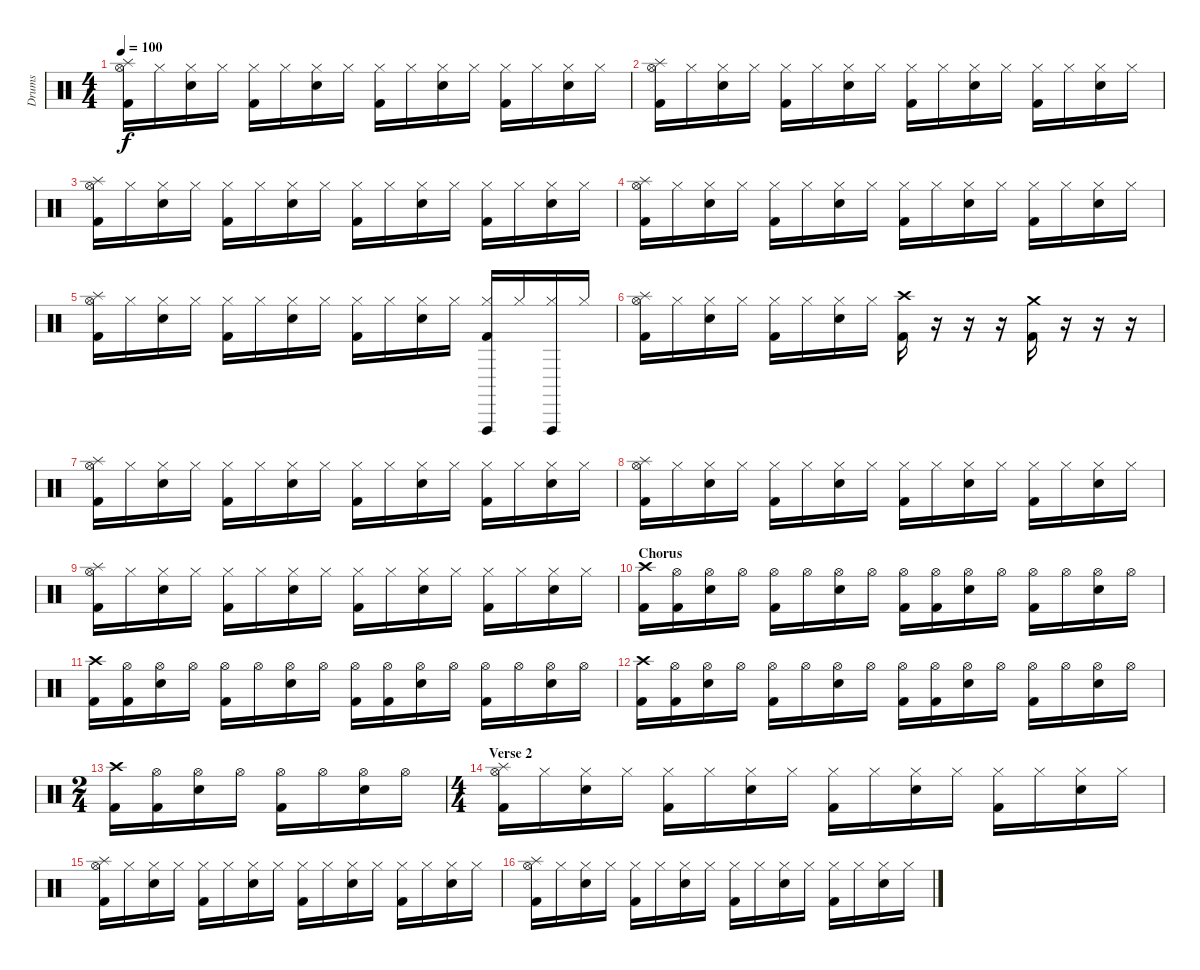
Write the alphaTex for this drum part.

\track ("Drums" "Drums") {instrument percussion}
\staff {score}
\articulation defaults
\ts (4 4)
\tempo 100
\clef neutral
\ks c
("Hi-Hat (open)" "Splash (hit)" "Kick (hit) 2").16{dy f} "Hi-Hat (closed)".16 ("Hi-Hat (closed)" "Snare (hit) 2").16 "Hi-Hat (closed)".16 ("Hi-Hat (closed)" "Kick (hit) 2").16 "Hi-Hat (closed)".16 ("Hi-Hat (closed)" "Snare (hit) 2").16 "Hi-Hat (closed)".16 ("Hi-Hat (closed)" "Kick (hit) 2").16 "Hi-Hat (closed)".16 ("Hi-Hat (closed)" "Snare (hit) 2").16 "Hi-Hat (closed)".16 ("Hi-Hat (closed)" "Kick (hit) 2").16 "Hi-Hat (closed)".16 ("Hi-Hat (closed)" "Snare (hit) 2").16 "Hi-Hat (closed)".16 |
("Hi-Hat (open)" "Splash (hit)" "Kick (hit) 2").16 "Hi-Hat (closed)".16 ("Hi-Hat (closed)" "Snare (hit) 2").16 "Hi-Hat (closed)".16 ("Hi-Hat (closed)" "Kick (hit) 2").16 "Hi-Hat (closed)".16 ("Hi-Hat (closed)" "Snare (hit) 2").16 "Hi-Hat (closed)".16 ("Hi-Hat (closed)" "Kick (hit) 2").16 "Hi-Hat (closed)".16 ("Hi-Hat (closed)" "Snare (hit) 2").16 "Hi-Hat (closed)".16 ("Hi-Hat (closed)" "Kick (hit) 2").16 "Hi-Hat (closed)".16 ("Hi-Hat (closed)" "Snare (hit) 2").16 "Hi-Hat (closed)".16 |
("Hi-Hat (open)" "Splash (hit)" "Kick (hit) 2").16 "Hi-Hat (closed)".16 ("Hi-Hat (closed)" "Snare (hit) 2").16 "Hi-Hat (closed)".16 ("Hi-Hat (closed)" "Kick (hit) 2").16 "Hi-Hat (closed)".16 ("Hi-Hat (closed)" "Snare (hit) 2").16 "Hi-Hat (closed)".16 ("Hi-Hat (closed)" "Kick (hit) 2").16 "Hi-Hat (closed)".16 ("Hi-Hat (closed)" "Snare (hit) 2").16 "Hi-Hat (closed)".16 ("Hi-Hat (closed)" "Kick (hit) 2").16 "Hi-Hat (closed)".16 ("Hi-Hat (closed)" "Snare (hit) 2").16 "Hi-Hat (closed)".16 |
("Hi-Hat (open)" "Splash (hit)" "Kick (hit) 2").16 "Hi-Hat (closed)".16 ("Hi-Hat (closed)" "Snare (hit) 2").16 "Hi-Hat (closed)".16 ("Hi-Hat (closed)" "Kick (hit) 2").16 "Hi-Hat (closed)".16 ("Hi-Hat (closed)" "Snare (hit) 2").16 "Hi-Hat (closed)".16 ("Hi-Hat (closed)" "Kick (hit) 2").16 "Hi-Hat (closed)".16 ("Hi-Hat (closed)" "Snare (hit) 2").16 "Hi-Hat (closed)".16 ("Hi-Hat (closed)" "Kick (hit) 2").16 "Hi-Hat (closed)".16 ("Hi-Hat (closed)" "Snare (hit) 2").16 "Hi-Hat (closed)".16 |
("Hi-Hat (open)" "Splash (hit)" "Kick (hit) 2").16 "Hi-Hat (closed)".16 ("Hi-Hat (closed)" "Snare (hit) 2").16 "Hi-Hat (closed)".16 ("Hi-Hat (closed)" "Kick (hit) 2").16 "Hi-Hat (closed)".16 ("Hi-Hat (closed)" "Snare (hit) 2").16 "Hi-Hat (closed)".16 ("Hi-Hat (closed)" "Kick (hit) 2").16 "Hi-Hat (closed)".16 ("Hi-Hat (closed)" "Snare (hit) 2").16 "Hi-Hat (closed)".16 ("Hi-Hat (closed)" "Vibraslap (hit)" "Kick (hit) 2").16 "Hi-Hat (closed)".16 ("Hi-Hat (closed)" "Vibraslap (hit)").16 "Hi-Hat (closed)".16 |
("Hi-Hat (open)" "Splash (hit)" "Kick (hit) 2").16 "Hi-Hat (closed)".16 ("Hi-Hat (closed)" "Snare (hit) 2").16 "Hi-Hat (closed)".16 ("Hi-Hat (closed)" "Kick (hit) 2").16 "Hi-Hat (closed)".16 ("Hi-Hat (closed)" "Snare (hit) 2").16 "Hi-Hat (closed)".16 ("Crash high (hit)" "Kick (hit) 2").16 r.16 r.16 r.16 ("Crash medium (hit)" "Kick (hit) 2").16 r.16 r.16 r.16 |
("Hi-Hat (open)" "Splash (hit)" "Kick (hit) 2").16 "Hi-Hat (closed)".16 ("Hi-Hat (closed)" "Snare (hit) 2").16 "Hi-Hat (closed)".16 ("Hi-Hat (closed)" "Kick (hit) 2").16 "Hi-Hat (closed)".16 ("Hi-Hat (closed)" "Snare (hit) 2").16 "Hi-Hat (closed)".16 ("Hi-Hat (closed)" "Kick (hit) 2").16 "Hi-Hat (closed)".16 ("Hi-Hat (closed)" "Snare (hit) 2").16 "Hi-Hat (closed)".16 ("Hi-Hat (closed)" "Kick (hit) 2").16 "Hi-Hat (closed)".16 ("Hi-Hat (closed)" "Snare (hit) 2").16 "Hi-Hat (closed)".16 |
("Hi-Hat (open)" "Splash (hit)" "Kick (hit) 2").16 "Hi-Hat (closed)".16 ("Hi-Hat (closed)" "Snare (hit) 2").16 "Hi-Hat (closed)".16 ("Hi-Hat (closed)" "Kick (hit) 2").16 "Hi-Hat (closed)".16 ("Hi-Hat (closed)" "Snare (hit) 2").16 "Hi-Hat (closed)".16 ("Hi-Hat (closed)" "Kick (hit) 2").16 "Hi-Hat (closed)".16 ("Hi-Hat (closed)" "Snare (hit) 2").16 "Hi-Hat (closed)".16 ("Hi-Hat (closed)" "Kick (hit) 2").16 "Hi-Hat (closed)".16 ("Hi-Hat (closed)" "Snare (hit) 2").16 "Hi-Hat (closed)".16 |
("Hi-Hat (open)" "Splash (hit)" "Kick (hit) 2").16 "Hi-Hat (closed)".16 ("Hi-Hat (closed)" "Snare (hit) 2").16 "Hi-Hat (closed)".16 ("Hi-Hat (closed)" "Kick (hit) 2").16 "Hi-Hat (closed)".16 ("Hi-Hat (closed)" "Snare (hit) 2").16 "Hi-Hat (closed)".16 ("Hi-Hat (closed)" "Kick (hit) 2").16 "Hi-Hat (closed)".16 ("Hi-Hat (closed)" "Snare (hit) 2").16 "Hi-Hat (closed)".16 ("Hi-Hat (closed)" "Kick (hit) 2").16 "Hi-Hat (closed)".16 ("Hi-Hat (closed)" "Snare (hit) 2").16 "Hi-Hat (closed)".16 |
\section ("" "Chorus")
("Crash high (hit)" "Kick (hit) 2").16 ("Hi-Hat (open)" "Kick (hit) 2").16 ("Hi-Hat (open)" "Snare (hit) 2").16 "Hi-Hat (open)".16 ("Hi-Hat (open)" "Kick (hit) 2").16 "Hi-Hat (open)".16 ("Hi-Hat (open)" "Snare (hit) 2").16 "Hi-Hat (open)".16 ("Hi-Hat (open)" "Kick (hit) 2").16 ("Hi-Hat (open)" "Kick (hit) 2").16 ("Hi-Hat (open)" "Snare (hit) 2").16 "Hi-Hat (open)".16 ("Hi-Hat (open)" "Kick (hit) 2").16 "Hi-Hat (open)".16 ("Hi-Hat (open)" "Snare (hit) 2").16 "Hi-Hat (open)".16 |
("Crash high (hit)" "Kick (hit) 2").16 ("Hi-Hat (open)" "Kick (hit) 2").16 ("Hi-Hat (open)" "Snare (hit) 2").16 "Hi-Hat (open)".16 ("Hi-Hat (open)" "Kick (hit) 2").16 "Hi-Hat (open)".16 ("Hi-Hat (open)" "Snare (hit) 2").16 "Hi-Hat (open)".16 ("Hi-Hat (open)" "Kick (hit) 2").16 ("Hi-Hat (open)" "Kick (hit) 2").16 ("Hi-Hat (open)" "Snare (hit) 2").16 "Hi-Hat (open)".16 ("Hi-Hat (open)" "Kick (hit) 2").16 "Hi-Hat (open)".16 ("Hi-Hat (open)" "Snare (hit) 2").16 "Hi-Hat (open)".16 |
("Crash high (hit)" "Kick (hit) 2").16 ("Hi-Hat (open)" "Kick (hit) 2").16 ("Hi-Hat (open)" "Snare (hit) 2").16 "Hi-Hat (open)".16 ("Hi-Hat (open)" "Kick (hit) 2").16 "Hi-Hat (open)".16 ("Hi-Hat (open)" "Snare (hit) 2").16 "Hi-Hat (open)".16 ("Hi-Hat (open)" "Kick (hit) 2").16 ("Hi-Hat (open)" "Kick (hit) 2").16 ("Hi-Hat (open)" "Snare (hit) 2").16 "Hi-Hat (open)".16 ("Hi-Hat (open)" "Kick (hit) 2").16 "Hi-Hat (open)".16 ("Hi-Hat (open)" "Snare (hit) 2").16 "Hi-Hat (open)".16 |
\ts (2 4)
("Crash high (hit)" "Kick (hit) 2").16 ("Hi-Hat (open)" "Kick (hit) 2").16 ("Hi-Hat (open)" "Snare (hit) 2").16 "Hi-Hat (open)".16 ("Hi-Hat (open)" "Kick (hit) 2").16 "Hi-Hat (open)".16 ("Hi-Hat (open)" "Snare (hit) 2").16 "Hi-Hat (open)".16 |
\ts (4 4)
\section ("" "Verse 2")
("Hi-Hat (open)" "Splash (hit)" "Kick (hit) 2").16 "Hi-Hat (closed)".16 ("Hi-Hat (closed)" "Snare (hit) 2").16 "Hi-Hat (closed)".16 ("Hi-Hat (closed)" "Kick (hit) 2").16 "Hi-Hat (closed)".16 ("Hi-Hat (closed)" "Snare (hit) 2").16 "Hi-Hat (closed)".16 ("Hi-Hat (closed)" "Kick (hit) 2").16 "Hi-Hat (closed)".16 ("Hi-Hat (closed)" "Snare (hit) 2").16 "Hi-Hat (closed)".16 ("Hi-Hat (closed)" "Kick (hit) 2").16 "Hi-Hat (closed)".16 ("Hi-Hat (closed)" "Snare (hit) 2").16 "Hi-Hat (closed)".16 |
("Hi-Hat (open)" "Splash (hit)" "Kick (hit) 2").16 "Hi-Hat (closed)".16 ("Hi-Hat (closed)" "Snare (hit) 2").16 "Hi-Hat (closed)".16 ("Hi-Hat (closed)" "Kick (hit) 2").16 "Hi-Hat (closed)".16 ("Hi-Hat (closed)" "Snare (hit) 2").16 "Hi-Hat (closed)".16 ("Hi-Hat (closed)" "Kick (hit) 2").16 "Hi-Hat (closed)".16 ("Hi-Hat (closed)" "Snare (hit) 2").16 "Hi-Hat (closed)".16 ("Hi-Hat (closed)" "Kick (hit) 2").16 "Hi-Hat (closed)".16 ("Hi-Hat (closed)" "Snare (hit) 2").16 "Hi-Hat (closed)".16 |
("Hi-Hat (open)" "Splash (hit)" "Kick (hit) 2").16 "Hi-Hat (closed)".16 ("Hi-Hat (closed)" "Snare (hit) 2").16 "Hi-Hat (closed)".16 ("Hi-Hat (closed)" "Kick (hit) 2").16 "Hi-Hat (closed)".16 ("Hi-Hat (closed)" "Snare (hit) 2").16 "Hi-Hat (closed)".16 ("Hi-Hat (closed)" "Kick (hit) 2").16 "Hi-Hat (closed)".16 ("Hi-Hat (closed)" "Snare (hit) 2").16 "Hi-Hat (closed)".16 ("Hi-Hat (closed)" "Kick (hit) 2").16 "Hi-Hat (closed)".16 ("Hi-Hat (closed)" "Snare (hit) 2").16 "Hi-Hat (closed)".16
